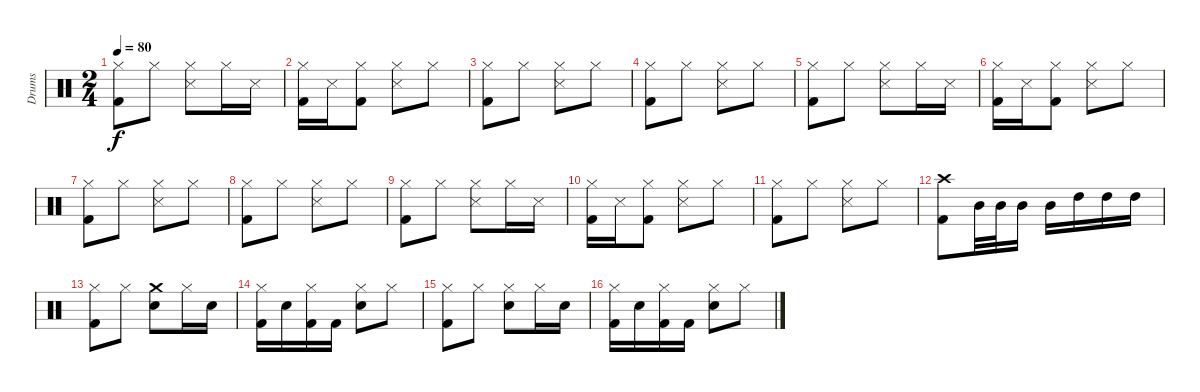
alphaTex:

\track ("Drums" "Drums") {instrument percussion}
\staff {score}
\articulation defaults
\ts (2 4)
\tempo 80
\clef neutral
\ks aminor
("Hi-Hat (closed)" "Kick (hit) 2").8{dy f} "Hi-Hat (closed)".8 ("Hi-Hat (closed)" "Snare (side stick) 3").8 "Hi-Hat (closed)".16 "Snare (side stick) 3".16 |
("Hi-Hat (closed)" "Kick (hit) 2").16 "Snare (side stick) 3".16 ("Kick (hit) 2" "Hi-Hat (closed)").8 ("Hi-Hat (closed)" "Snare (side stick) 3").8 "Hi-Hat (closed)".8 |
("Hi-Hat (closed)" "Kick (hit) 2").8 "Hi-Hat (closed)".8 ("Hi-Hat (closed)" "Snare (side stick) 3").8 "Hi-Hat (closed)".8 |
("Hi-Hat (closed)" "Kick (hit) 2").8 "Hi-Hat (closed)".8 ("Hi-Hat (closed)" "Snare (side stick) 3").8 "Hi-Hat (closed)".8 |
("Hi-Hat (closed)" "Kick (hit) 2").8 "Hi-Hat (closed)".8 ("Hi-Hat (closed)" "Snare (side stick) 3").8 "Hi-Hat (closed)".16 "Snare (side stick) 3".16 |
("Hi-Hat (closed)" "Kick (hit) 2").16 "Snare (side stick) 3".16 ("Kick (hit) 2" "Hi-Hat (closed)").8 ("Hi-Hat (closed)" "Snare (side stick) 3").8 "Hi-Hat (closed)".8 |
("Hi-Hat (closed)" "Kick (hit) 2").8 "Hi-Hat (closed)".8 ("Hi-Hat (closed)" "Snare (side stick) 3").8 "Hi-Hat (closed)".8 |
("Hi-Hat (closed)" "Kick (hit) 2").8 "Hi-Hat (closed)".8 ("Hi-Hat (closed)" "Snare (side stick) 3").8 "Hi-Hat (closed)".8 |
("Hi-Hat (closed)" "Kick (hit) 2").8 "Hi-Hat (closed)".8 ("Hi-Hat (closed)" "Snare (side stick) 3").8 "Hi-Hat (closed)".16 "Snare (side stick) 3".16 |
("Hi-Hat (closed)" "Kick (hit) 2").16 "Snare (side stick) 3".16 ("Kick (hit) 2" "Hi-Hat (closed)").8 ("Hi-Hat (closed)" "Snare (side stick) 3").8 "Hi-Hat (closed)".8 |
("Hi-Hat (closed)" "Kick (hit) 2").8 "Hi-Hat (closed)".8 ("Hi-Hat (closed)" "Snare (side stick) 3").8 "Hi-Hat (closed)".8 |
("Crash high (hit)" "Kick (hit) 2").8 "Mid Tom (hit)".32 "Mid Tom (hit)".32 "Mid Tom (hit)".16 "Mid Tom (hit)".16 "High Tom (hit)".16 "High Tom (hit)".16 "High Tom (hit)".16 |
("Hi-Hat (closed)" "Kick (hit) 2").8 "Hi-Hat (closed)".8 ("Crash medium (hit)" "Electric Snare (hit)").8 "Hi-Hat (closed)".16 "Electric Snare (hit)".16 |
("Kick (hit) 2" "Hi-Hat (closed)").16 "Electric Snare (hit)".16 ("Kick (hit) 2" "Hi-Hat (closed)").16 "Kick (hit) 2".16 ("Electric Snare (hit)" "Hi-Hat (closed)").8 "Hi-Hat (closed)".8 |
("Hi-Hat (closed)" "Kick (hit) 2").8 "Hi-Hat (closed)".8 ("Hi-Hat (closed)" "Electric Snare (hit)").8 "Hi-Hat (closed)".16 "Electric Snare (hit)".16 |
("Kick (hit) 2" "Hi-Hat (closed)").16 "Electric Snare (hit)".16 ("Kick (hit) 2" "Hi-Hat (closed)").16 "Kick (hit) 2".16 ("Electric Snare (hit)" "Hi-Hat (closed)").8 "Hi-Hat (closed)".8
